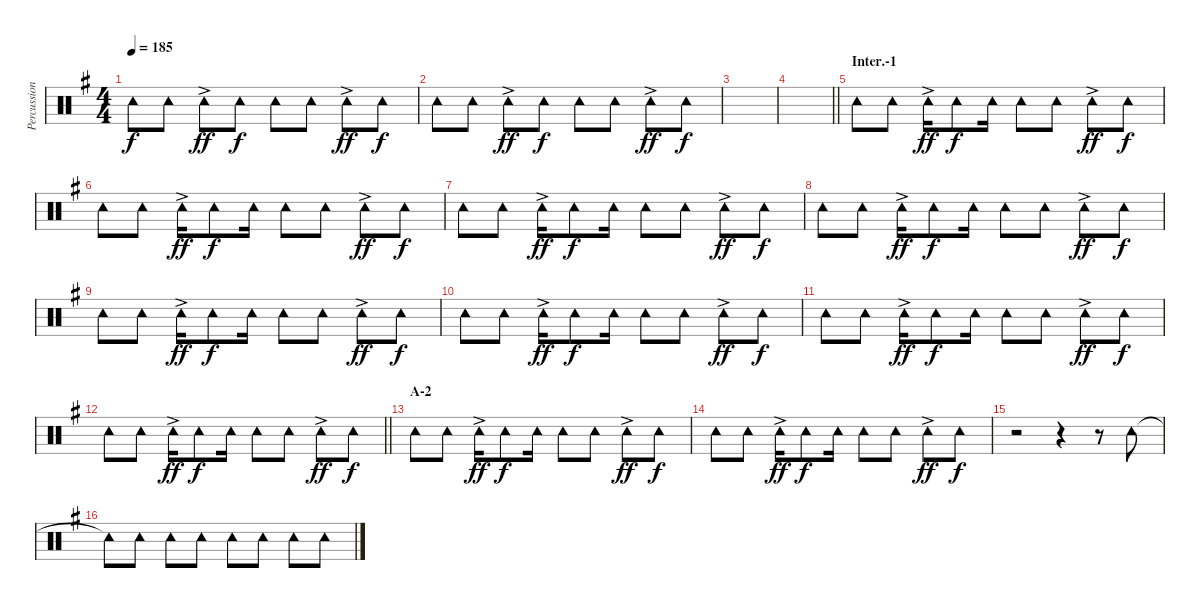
\track ("Percussion I" "Percussion") {instrument percussion}
\staff {score}
\articulation defaults
\ts (4 4)
\tempo 185
\clef neutral
\ks g "Tambourine (hit)".8{dy f} "Tambourine (hit)".8 "Tambourine (hit)"{ac}.8{dy ff} "Tambourine (hit)".8{dy f} "Tambourine (hit)".8 "Tambourine (hit)".8 "Tambourine (hit)"{ac}.8{dy ff} "Tambourine (hit)".8{dy f}
|
"Tambourine (hit)".8 "Tambourine (hit)".8 "Tambourine (hit)"{ac}.8{dy ff} "Tambourine (hit)".8{dy f} "Tambourine (hit)".8 "Tambourine (hit)".8 "Tambourine (hit)"{ac}.8{dy ff} "Tambourine (hit)".8{dy f} |
|
\barLineRight lightlight
|
\section ("" "Inter.-1")
"Tambourine (hit)".8 "Tambourine (hit)".8 "Tambourine (hit)"{ac}.16{dy ff} "Tambourine (hit)".8{dy f} "Tambourine (hit)".16 "Tambourine (hit)".8 "Tambourine (hit)".8 "Tambourine (hit)"{ac}.8{dy ff} "Tambourine (hit)".8{dy f} |
"Tambourine (hit)".8 "Tambourine (hit)".8 "Tambourine (hit)"{ac}.16{dy ff} "Tambourine (hit)".8{dy f} "Tambourine (hit)".16 "Tambourine (hit)".8 "Tambourine (hit)".8 "Tambourine (hit)"{ac}.8{dy ff} "Tambourine (hit)".8{dy f} |
"Tambourine (hit)".8 "Tambourine (hit)".8 "Tambourine (hit)"{ac}.16{dy ff} "Tambourine (hit)".8{dy f} "Tambourine (hit)".16 "Tambourine (hit)".8 "Tambourine (hit)".8 "Tambourine (hit)"{ac}.8{dy ff} "Tambourine (hit)".8{dy f} |
"Tambourine (hit)".8 "Tambourine (hit)".8 "Tambourine (hit)"{ac}.16{dy ff} "Tambourine (hit)".8{dy f} "Tambourine (hit)".16 "Tambourine (hit)".8 "Tambourine (hit)".8 "Tambourine (hit)"{ac}.8{dy ff} "Tambourine (hit)".8{dy f} |
"Tambourine (hit)".8 "Tambourine (hit)".8 "Tambourine (hit)"{ac}.16{dy ff} "Tambourine (hit)".8{dy f} "Tambourine (hit)".16 "Tambourine (hit)".8 "Tambourine (hit)".8 "Tambourine (hit)"{ac}.8{dy ff} "Tambourine (hit)".8{dy f} |
"Tambourine (hit)".8 "Tambourine (hit)".8 "Tambourine (hit)"{ac}.16{dy ff} "Tambourine (hit)".8{dy f} "Tambourine (hit)".16 "Tambourine (hit)".8 "Tambourine (hit)".8 "Tambourine (hit)"{ac}.8{dy ff} "Tambourine (hit)".8{dy f} |
"Tambourine (hit)".8 "Tambourine (hit)".8 "Tambourine (hit)"{ac}.16{dy ff} "Tambourine (hit)".8{dy f} "Tambourine (hit)".16 "Tambourine (hit)".8 "Tambourine (hit)".8 "Tambourine (hit)"{ac}.8{dy ff} "Tambourine (hit)".8{dy f} |
\barLineRight lightlight "Tambourine (hit)".8 "Tambourine (hit)".8 "Tambourine (hit)"{ac}.16{dy ff} "Tambourine (hit)".8{dy f} "Tambourine (hit)".16 "Tambourine (hit)".8 "Tambourine (hit)".8 "Tambourine (hit)"{ac}.8{dy ff} "Tambourine (hit)".8{dy f}
|
\section ("" "A-2")
"Tambourine (hit)".8 "Tambourine (hit)".8 "Tambourine (hit)"{ac}.16{dy ff} "Tambourine (hit)".8{dy f} "Tambourine (hit)".16 "Tambourine (hit)".8 "Tambourine (hit)".8 "Tambourine (hit)"{ac}.8{dy ff} "Tambourine (hit)".8{dy f} |
"Tambourine (hit)".8 "Tambourine (hit)".8 "Tambourine (hit)"{ac}.16{dy ff} "Tambourine (hit)".8{dy f} "Tambourine (hit)".16 "Tambourine (hit)".8 "Tambourine (hit)".8 "Tambourine (hit)"{ac}.8{dy ff} "Tambourine (hit)".8{dy f} |
r.2 r.4 r.8 "Tambourine (hit)".8 |
"Tambourine (hit)"{t}.8 "Tambourine (hit)".8 "Tambourine (hit)".8 "Tambourine (hit)".8 "Tambourine (hit)".8 "Tambourine (hit)".8 "Tambourine (hit)".8 "Tambourine (hit)".8
